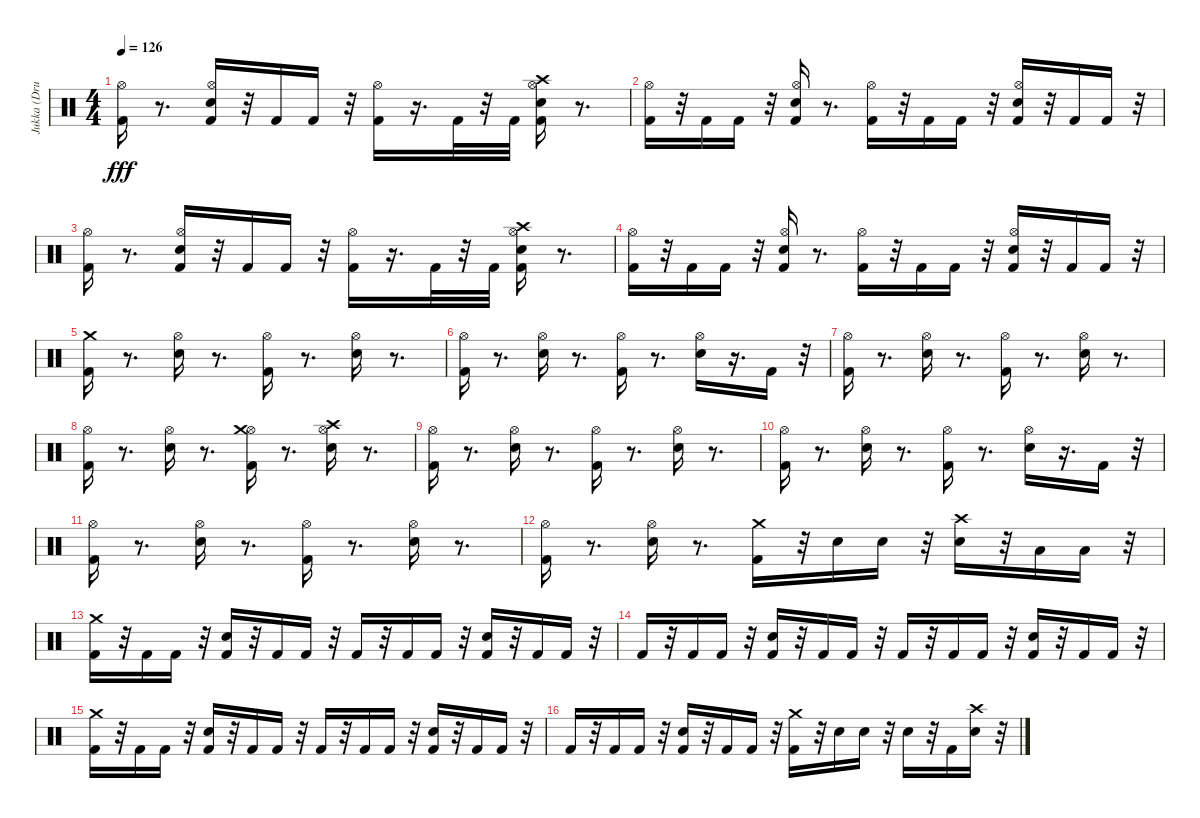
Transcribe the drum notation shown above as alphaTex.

\track ("Jukka (Drums)" "Jukka (Dru") {instrument percussion}
\staff {score}
\articulation defaults
\ts (4 4)
\tempo 126
\clef neutral
\ks c
("Kick (hit) 2" "Hi-Hat (open)").16{dy fff} r.8{d} ("Electric Snare (hit)" "Kick (hit) 2" "Hi-Hat (open)").16 r.32 "Kick (hit) 2".16 "Kick (hit) 2".16 r.32 ("Kick (hit) 2" "Hi-Hat (open)").16 r.16{d} "Kick (hit) 2".32 r.32 "Kick (hit) 2".32 ("Electric Snare (hit)" "Kick (hit) 2" "Crash high (hit)" "Hi-Hat (open)").16 r.8{d} |
("Kick (hit) 2" "Hi-Hat (open)").16 r.32 "Kick (hit) 2".16 "Kick (hit) 2".16 r.32 ("Electric Snare (hit)" "Kick (hit) 2" "Hi-Hat (open)").16 r.8{d} ("Kick (hit) 2" "Hi-Hat (open)").16 r.32 "Kick (hit) 2".16 "Kick (hit) 2".16 r.32 ("Electric Snare (hit)" "Kick (hit) 2" "Hi-Hat (open)").16 r.32 "Kick (hit) 2".16 "Kick (hit) 2".16 r.32 |
("Kick (hit) 2" "Hi-Hat (open)").16 r.8{d} ("Electric Snare (hit)" "Kick (hit) 2" "Hi-Hat (open)").16 r.32 "Kick (hit) 2".16 "Kick (hit) 2".16 r.32 ("Kick (hit) 2" "Hi-Hat (open)").16 r.16{d} "Kick (hit) 2".32 r.32 "Kick (hit) 2".32 ("Electric Snare (hit)" "Kick (hit) 2" "Crash high (hit)" "Hi-Hat (open)").16 r.8{d} |
("Kick (hit) 2" "Hi-Hat (open)").16 r.32 "Kick (hit) 2".16 "Kick (hit) 2".16 r.32 ("Electric Snare (hit)" "Kick (hit) 2" "Hi-Hat (open)").16 r.8{d} ("Kick (hit) 2" "Hi-Hat (open)").16 r.32 "Kick (hit) 2".16 "Kick (hit) 2".16 r.32 ("Electric Snare (hit)" "Kick (hit) 2" "Hi-Hat (open)").16 r.32 "Kick (hit) 2".16 "Kick (hit) 2".16 r.32 |
("Kick (hit) 2" "Crash medium (hit)").16 r.8{d} ("Electric Snare (hit)" "Hi-Hat (open)").16 r.8{d} ("Kick (hit) 2" "Hi-Hat (open)").16 r.8{d} ("Electric Snare (hit)" "Hi-Hat (open)").16 r.8{d} |
("Kick (hit) 2" "Hi-Hat (open)").16 r.8{d} ("Electric Snare (hit)" "Hi-Hat (open)").16 r.8{d} ("Kick (hit) 2" "Hi-Hat (open)").16 r.8{d} ("Electric Snare (hit)" "Hi-Hat (open)").16 r.16{d} "Kick (hit) 2".16 r.32 |
("Kick (hit) 2" "Hi-Hat (open)").16 r.8{d} ("Electric Snare (hit)" "Hi-Hat (open)").16 r.8{d} ("Kick (hit) 2" "Hi-Hat (open)").16 r.8{d} ("Electric Snare (hit)" "Hi-Hat (open)").16 r.8{d} |
("Kick (hit) 2" "Hi-Hat (open)").16 r.8{d} ("Electric Snare (hit)" "Hi-Hat (open)").16 r.8{d} ("Kick (hit) 2" "Hi-Hat (open)" "Crash medium (hit)").16 r.8{d} ("Electric Snare (hit)" "Hi-Hat (open)" "Crash high (hit)").16 r.8{d} |
("Kick (hit) 2" "Hi-Hat (open)").16 r.8{d} ("Electric Snare (hit)" "Hi-Hat (open)").16 r.8{d} ("Kick (hit) 2" "Hi-Hat (open)").16 r.8{d} ("Electric Snare (hit)" "Hi-Hat (open)").16 r.8{d} |
("Kick (hit) 2" "Hi-Hat (open)").16 r.8{d} ("Electric Snare (hit)" "Hi-Hat (open)").16 r.8{d} ("Kick (hit) 2" "Hi-Hat (open)").16 r.8{d} ("Electric Snare (hit)" "Hi-Hat (open)").16 r.16{d} "Kick (hit) 2".16 r.32 |
("Kick (hit) 2" "Hi-Hat (open)").16 r.8{d} ("Electric Snare (hit)" "Hi-Hat (open)").16 r.8{d} ("Kick (hit) 2" "Hi-Hat (open)").16 r.8{d} ("Electric Snare (hit)" "Hi-Hat (open)").16 r.8{d} |
("Kick (hit) 2" "Hi-Hat (open)").16 r.8{d} ("Electric Snare (hit)" "Hi-Hat (open)").16 r.8{d} ("Kick (hit) 2" "Crash medium (hit)").16 r.32 "Electric Snare (hit)".16 "Electric Snare (hit)".16 r.32 ("Electric Snare (hit)" "Crash high (hit)").16 r.32 "Low Tom (hit)".16 "Low Floor Tom (hit)".16 r.32 |
("Kick (hit) 2" "Crash medium (hit)").16 r.32 "Kick (hit) 2".16 "Kick (hit) 2".16 r.32 ("Kick (hit) 2" "Electric Snare (hit)").16 r.32 "Kick (hit) 2".16 "Kick (hit) 2".16 r.32 "Kick (hit) 2".16 r.32 "Kick (hit) 2".16 "Kick (hit) 2".16 r.32 ("Kick (hit) 2" "Electric Snare (hit)").16 r.32 "Kick (hit) 2".16 "Kick (hit) 2".16 r.32 |
"Kick (hit) 2".16 r.32 "Kick (hit) 2".16 "Kick (hit) 2".16 r.32 ("Kick (hit) 2" "Electric Snare (hit)").16 r.32 "Kick (hit) 2".16 "Kick (hit) 2".16 r.32 "Kick (hit) 2".16 r.32 "Kick (hit) 2".16 "Kick (hit) 2".16 r.32 ("Kick (hit) 2" "Electric Snare (hit)").16 r.32 "Kick (hit) 2".16 "Kick (hit) 2".16 r.32 |
("Kick (hit) 2" "Crash medium (hit)").16 r.32 "Kick (hit) 2".16 "Kick (hit) 2".16 r.32 ("Kick (hit) 2" "Electric Snare (hit)").16 r.32 "Kick (hit) 2".16 "Kick (hit) 2".16 r.32 "Kick (hit) 2".16 r.32 "Kick (hit) 2".16 "Kick (hit) 2".16 r.32 ("Kick (hit) 2" "Electric Snare (hit)").16 r.32 "Kick (hit) 2".16 "Kick (hit) 2".16 r.32 |
"Kick (hit) 2".16 r.32 "Kick (hit) 2".16 "Kick (hit) 2".16 r.32 ("Kick (hit) 2" "Electric Snare (hit)").16 r.32 "Kick (hit) 2".16 "Kick (hit) 2".16 r.32 ("Kick (hit) 2" "Crash medium (hit)").16 r.32 "Electric Snare (hit)".16 "Electric Snare (hit)".16 r.32 "Electric Snare (hit)".16 r.32 "Kick (hit) 2".16 ("Electric Snare (hit)" "Crash high (hit)").16 r.32
